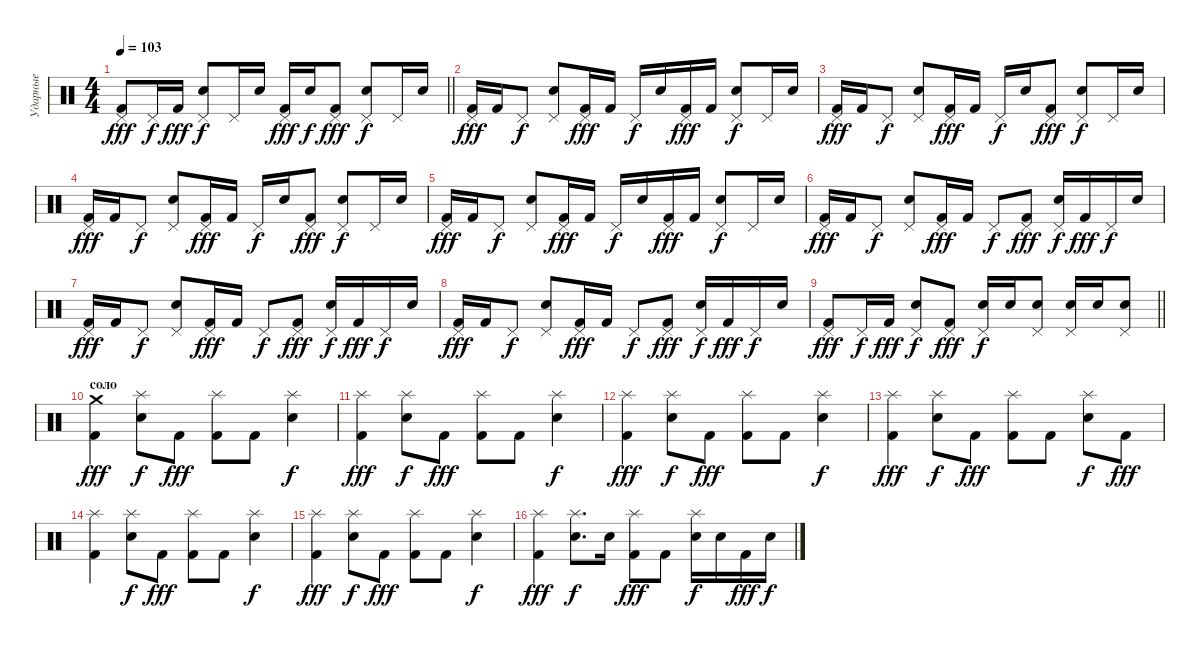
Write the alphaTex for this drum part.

\track ("Ударные" "Ударные") {instrument percussion}
\staff {score}
\articulation defaults
\ts (4 4)
\tempo 103
\clef neutral
\barLineRight lightlight
\ks c
("Pedal Hi-Hat (hit)" "Kick (hit) 2").8{dy fff} "Pedal Hi-Hat (hit)".16{dy f} "Kick (hit) 2".16{dy fff} ("Pedal Hi-Hat (hit)" "Electric Snare (hit)").8{dy f} "Pedal Hi-Hat (hit)".16 "Electric Snare (hit)".16 ("Pedal Hi-Hat (hit)" "Kick (hit) 2").16{dy fff} "Electric Snare (hit)".16{dy f} ("Pedal Hi-Hat (hit)" "Kick (hit) 2").8{dy fff} ("Pedal Hi-Hat (hit)" "Electric Snare (hit)").8{dy f} "Pedal Hi-Hat (hit)".16 "Electric Snare (hit)".16 |
("Pedal Hi-Hat (hit)" "Kick (hit) 2").16{dy fff} "Kick (hit) 2".16 "Pedal Hi-Hat (hit)".8{dy f} ("Pedal Hi-Hat (hit)" "Electric Snare (hit)").8 ("Pedal Hi-Hat (hit)" "Kick (hit) 2").16{dy fff} "Kick (hit) 2".16 "Pedal Hi-Hat (hit)".16{dy f} "Electric Snare (hit)".16 ("Pedal Hi-Hat (hit)" "Kick (hit) 2").16{dy fff} "Kick (hit) 2".16 ("Pedal Hi-Hat (hit)" "Electric Snare (hit)").8{dy f} "Pedal Hi-Hat (hit)".16 "Electric Snare (hit)".16 |
("Pedal Hi-Hat (hit)" "Kick (hit) 2").16{dy fff} "Kick (hit) 2".16 "Pedal Hi-Hat (hit)".8{dy f} ("Pedal Hi-Hat (hit)" "Electric Snare (hit)").8 ("Pedal Hi-Hat (hit)" "Kick (hit) 2").16{dy fff} "Kick (hit) 2".16 "Pedal Hi-Hat (hit)".16{dy f} "Electric Snare (hit)".16 ("Pedal Hi-Hat (hit)" "Kick (hit) 2").8{dy fff} ("Pedal Hi-Hat (hit)" "Electric Snare (hit)").8{dy f} "Pedal Hi-Hat (hit)".16 "Electric Snare (hit)".16 |
("Pedal Hi-Hat (hit)" "Kick (hit) 2").16{dy fff} "Kick (hit) 2".16 "Pedal Hi-Hat (hit)".8{dy f} ("Pedal Hi-Hat (hit)" "Electric Snare (hit)").8 ("Pedal Hi-Hat (hit)" "Kick (hit) 2").16{dy fff} "Kick (hit) 2".16 "Pedal Hi-Hat (hit)".16{dy f} "Electric Snare (hit)".16 ("Pedal Hi-Hat (hit)" "Kick (hit) 2").8{dy fff} ("Pedal Hi-Hat (hit)" "Electric Snare (hit)").8{dy f} "Pedal Hi-Hat (hit)".16 "Electric Snare (hit)".16 |
("Pedal Hi-Hat (hit)" "Kick (hit) 2").16{dy fff} "Kick (hit) 2".16 "Pedal Hi-Hat (hit)".8{dy f} ("Pedal Hi-Hat (hit)" "Electric Snare (hit)").8 ("Pedal Hi-Hat (hit)" "Kick (hit) 2").16{dy fff} "Kick (hit) 2".16 "Pedal Hi-Hat (hit)".16{dy f} "Electric Snare (hit)".16 ("Pedal Hi-Hat (hit)" "Kick (hit) 2").16{dy fff} "Kick (hit) 2".16 ("Pedal Hi-Hat (hit)" "Electric Snare (hit)").8{dy f} "Pedal Hi-Hat (hit)".16 "Electric Snare (hit)".16 |
("Pedal Hi-Hat (hit)" "Kick (hit) 2").16{dy fff} "Kick (hit) 2".16 "Pedal Hi-Hat (hit)".8{dy f} ("Pedal Hi-Hat (hit)" "Electric Snare (hit)").8 ("Pedal Hi-Hat (hit)" "Kick (hit) 2").16{dy fff} "Kick (hit) 2".16 "Pedal Hi-Hat (hit)".8{dy f} ("Pedal Hi-Hat (hit)" "Kick (hit) 2").8{dy fff} ("Pedal Hi-Hat (hit)" "Electric Snare (hit)").16{dy f} "Kick (hit) 2".16{dy fff} "Pedal Hi-Hat (hit)".16{dy f} "Electric Snare (hit)".16 |
("Pedal Hi-Hat (hit)" "Kick (hit) 2").16{dy fff} "Kick (hit) 2".16 "Pedal Hi-Hat (hit)".8{dy f} ("Pedal Hi-Hat (hit)" "Electric Snare (hit)").8 ("Pedal Hi-Hat (hit)" "Kick (hit) 2").16{dy fff} "Kick (hit) 2".16 "Pedal Hi-Hat (hit)".8{dy f} ("Pedal Hi-Hat (hit)" "Kick (hit) 2").8{dy fff} ("Pedal Hi-Hat (hit)" "Electric Snare (hit)").16{dy f} "Kick (hit) 2".16{dy fff} "Pedal Hi-Hat (hit)".16{dy f} "Electric Snare (hit)".16 |
("Pedal Hi-Hat (hit)" "Kick (hit) 2").16{dy fff} "Kick (hit) 2".16 "Pedal Hi-Hat (hit)".8{dy f} ("Pedal Hi-Hat (hit)" "Electric Snare (hit)").8 ("Pedal Hi-Hat (hit)" "Kick (hit) 2").16{dy fff} "Kick (hit) 2".16 "Pedal Hi-Hat (hit)".8{dy f} ("Pedal Hi-Hat (hit)" "Kick (hit) 2").8{dy fff} ("Pedal Hi-Hat (hit)" "Electric Snare (hit)").16{dy f} "Kick (hit) 2".16{dy fff} "Pedal Hi-Hat (hit)".16{dy f} "Electric Snare (hit)".16 |
\barLineRight lightlight
("Pedal Hi-Hat (hit)" "Kick (hit) 2").8{dy fff} "Pedal Hi-Hat (hit)".16{dy f} "Kick (hit) 2".16{dy fff} ("Pedal Hi-Hat (hit)" "Electric Snare (hit)").8{dy f} ("Pedal Hi-Hat (hit)" "Kick (hit) 2").8{dy fff} ("Pedal Hi-Hat (hit)" "Electric Snare (hit)").16{dy f} "Electric Snare (hit)".16 ("Pedal Hi-Hat (hit)" "Electric Snare (hit)").8 ("Pedal Hi-Hat (hit)" "Electric Snare (hit)").16 "Electric Snare (hit)".16 ("Pedal Hi-Hat (hit)" "Electric Snare (hit)").8 |
\section ("" "соло")
("Crash medium (hit)" "Kick (hit) 2").4{dy fff} ("Splash (hit)" "Electric Snare (hit)").8{dy f} "Kick (hit) 2".8{dy fff} ("Splash (hit)" "Kick (hit) 2").8 "Kick (hit) 2".8 ("Splash (hit)" "Electric Snare (hit)").4{dy f} |
("Splash (hit)" "Kick (hit) 2").4{dy fff} ("Splash (hit)" "Electric Snare (hit)").8{dy f} "Kick (hit) 2".8{dy fff} ("Splash (hit)" "Kick (hit) 2").8 "Kick (hit) 2".8 ("Splash (hit)" "Electric Snare (hit)").4{dy f} |
("Splash (hit)" "Kick (hit) 2").4{dy fff} ("Splash (hit)" "Electric Snare (hit)").8{dy f} "Kick (hit) 2".8{dy fff} ("Splash (hit)" "Kick (hit) 2").8 "Kick (hit) 2".8 ("Splash (hit)" "Electric Snare (hit)").4{dy f} |
("Splash (hit)" "Kick (hit) 2").4{dy fff} ("Splash (hit)" "Electric Snare (hit)").8{dy f} "Kick (hit) 2".8{dy fff} ("Splash (hit)" "Kick (hit) 2").8 "Kick (hit) 2".8 ("Splash (hit)" "Electric Snare (hit)").8{dy f} "Kick (hit) 2".8{dy fff} |
("Splash (hit)" "Kick (hit) 2").4 ("Splash (hit)" "Electric Snare (hit)").8{dy f} "Kick (hit) 2".8{dy fff} ("Splash (hit)" "Kick (hit) 2").8 "Kick (hit) 2".8 ("Splash (hit)" "Electric Snare (hit)").4{dy f} |
("Splash (hit)" "Kick (hit) 2").4{dy fff} ("Splash (hit)" "Electric Snare (hit)").8{dy f} "Kick (hit) 2".8{dy fff} ("Splash (hit)" "Kick (hit) 2").8 "Kick (hit) 2".8 ("Splash (hit)" "Electric Snare (hit)").4{dy f} |
("Splash (hit)" "Kick (hit) 2").4{dy fff} ("Splash (hit)" "Electric Snare (hit)").8{d dy f} "Electric Snare (hit)".16 ("Splash (hit)" "Kick (hit) 2").8{dy fff} "Kick (hit) 2".8 ("Splash (hit)" "Electric Snare (hit)").16{dy f} "Electric Snare (hit)".16 "Kick (hit) 2".16{dy fff} "Electric Snare (hit)".16{dy f}
